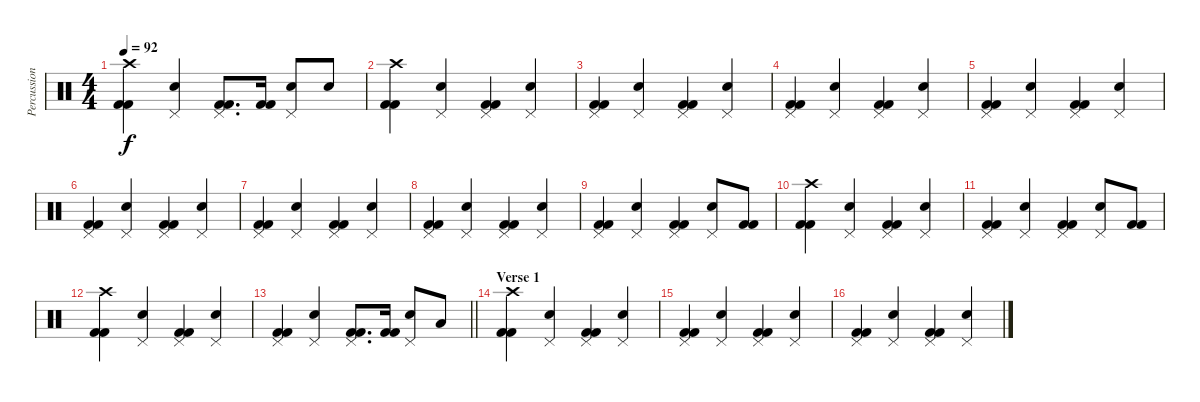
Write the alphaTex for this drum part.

\track ("Percussion" "Percussion") {instrument percussion}
\staff {score}
\articulation defaults
\ts (4 4)
\tempo 92
\clef neutral
\ks c
("Crash high (hit)" "Kick (hit) 2" "Kick (hit) 2").4{dy f} ("Pedal Hi-Hat (hit)" "Electric Snare (hit)").4 ("Pedal Hi-Hat (hit)" "Kick (hit) 2" "Kick (hit) 2").8{d} ("Kick (hit) 2" "Kick (hit) 2").16 ("Pedal Hi-Hat (hit)" "Electric Snare (hit)").8 "Electric Snare (hit)".8 |
("Crash high (hit)" "Kick (hit) 2" "Kick (hit) 2").4 ("Pedal Hi-Hat (hit)" "Electric Snare (hit)").4 ("Pedal Hi-Hat (hit)" "Kick (hit) 2" "Kick (hit) 2").4 ("Pedal Hi-Hat (hit)" "Electric Snare (hit)").4 |
("Pedal Hi-Hat (hit)" "Kick (hit) 2" "Kick (hit) 2").4 ("Pedal Hi-Hat (hit)" "Electric Snare (hit)").4 ("Pedal Hi-Hat (hit)" "Kick (hit) 2" "Kick (hit) 2").4 ("Pedal Hi-Hat (hit)" "Electric Snare (hit)").4 |
("Pedal Hi-Hat (hit)" "Kick (hit) 2" "Kick (hit) 2").4 ("Pedal Hi-Hat (hit)" "Electric Snare (hit)").4 ("Pedal Hi-Hat (hit)" "Kick (hit) 2" "Kick (hit) 2").4 ("Pedal Hi-Hat (hit)" "Electric Snare (hit)").4 |
("Pedal Hi-Hat (hit)" "Kick (hit) 2" "Kick (hit) 2").4 ("Pedal Hi-Hat (hit)" "Electric Snare (hit)").4 ("Pedal Hi-Hat (hit)" "Kick (hit) 2" "Kick (hit) 2").4 ("Pedal Hi-Hat (hit)" "Electric Snare (hit)").4 |
("Pedal Hi-Hat (hit)" "Kick (hit) 2" "Kick (hit) 2").4 ("Pedal Hi-Hat (hit)" "Electric Snare (hit)").4 ("Pedal Hi-Hat (hit)" "Kick (hit) 2" "Kick (hit) 2").4 ("Pedal Hi-Hat (hit)" "Electric Snare (hit)").4 |
("Pedal Hi-Hat (hit)" "Kick (hit) 2" "Kick (hit) 2").4 ("Pedal Hi-Hat (hit)" "Electric Snare (hit)").4 ("Pedal Hi-Hat (hit)" "Kick (hit) 2" "Kick (hit) 2").4 ("Pedal Hi-Hat (hit)" "Electric Snare (hit)").4 |
("Pedal Hi-Hat (hit)" "Kick (hit) 2" "Kick (hit) 2").4 ("Pedal Hi-Hat (hit)" "Electric Snare (hit)").4 ("Pedal Hi-Hat (hit)" "Kick (hit) 2" "Kick (hit) 2").4 ("Pedal Hi-Hat (hit)" "Electric Snare (hit)").4 |
("Pedal Hi-Hat (hit)" "Kick (hit) 2" "Kick (hit) 2").4 ("Pedal Hi-Hat (hit)" "Electric Snare (hit)").4 ("Pedal Hi-Hat (hit)" "Kick (hit) 2" "Kick (hit) 2").4 ("Pedal Hi-Hat (hit)" "Electric Snare (hit)").8 ("Kick (hit) 2" "Kick (hit) 2").8 |
("Crash high (hit)" "Kick (hit) 2" "Kick (hit) 2").4 ("Pedal Hi-Hat (hit)" "Electric Snare (hit)").4 ("Pedal Hi-Hat (hit)" "Kick (hit) 2" "Kick (hit) 2").4 ("Pedal Hi-Hat (hit)" "Electric Snare (hit)").4 |
("Pedal Hi-Hat (hit)" "Kick (hit) 2" "Kick (hit) 2").4 ("Pedal Hi-Hat (hit)" "Electric Snare (hit)").4 ("Pedal Hi-Hat (hit)" "Kick (hit) 2" "Kick (hit) 2").4 ("Pedal Hi-Hat (hit)" "Electric Snare (hit)").8 ("Kick (hit) 2" "Kick (hit) 2").8 |
("Crash high (hit)" "Kick (hit) 2" "Kick (hit) 2").4 ("Pedal Hi-Hat (hit)" "Electric Snare (hit)").4 ("Pedal Hi-Hat (hit)" "Kick (hit) 2" "Kick (hit) 2").4 ("Pedal Hi-Hat (hit)" "Electric Snare (hit)").4 |
\barLineRight lightlight
("Pedal Hi-Hat (hit)" "Kick (hit) 2" "Kick (hit) 2").4 ("Pedal Hi-Hat (hit)" "Electric Snare (hit)").4 ("Pedal Hi-Hat (hit)" "Kick (hit) 2" "Kick (hit) 2").8{d} ("Kick (hit) 2" "Kick (hit) 2").16 ("Pedal Hi-Hat (hit)" "Electric Snare (hit)").8 "Low Tom (hit)".8 |
\section ("" "Verse 1")
("Crash high (hit)" "Kick (hit) 2" "Kick (hit) 2").4 ("Pedal Hi-Hat (hit)" "Electric Snare (hit)").4 ("Pedal Hi-Hat (hit)" "Kick (hit) 2" "Kick (hit) 2").4 ("Pedal Hi-Hat (hit)" "Electric Snare (hit)").4 |
("Pedal Hi-Hat (hit)" "Kick (hit) 2" "Kick (hit) 2").4 ("Pedal Hi-Hat (hit)" "Electric Snare (hit)").4 ("Pedal Hi-Hat (hit)" "Kick (hit) 2" "Kick (hit) 2").4 ("Pedal Hi-Hat (hit)" "Electric Snare (hit)").4 |
("Pedal Hi-Hat (hit)" "Kick (hit) 2" "Kick (hit) 2").4 ("Pedal Hi-Hat (hit)" "Electric Snare (hit)").4 ("Pedal Hi-Hat (hit)" "Kick (hit) 2" "Kick (hit) 2").4 ("Pedal Hi-Hat (hit)" "Electric Snare (hit)").4
